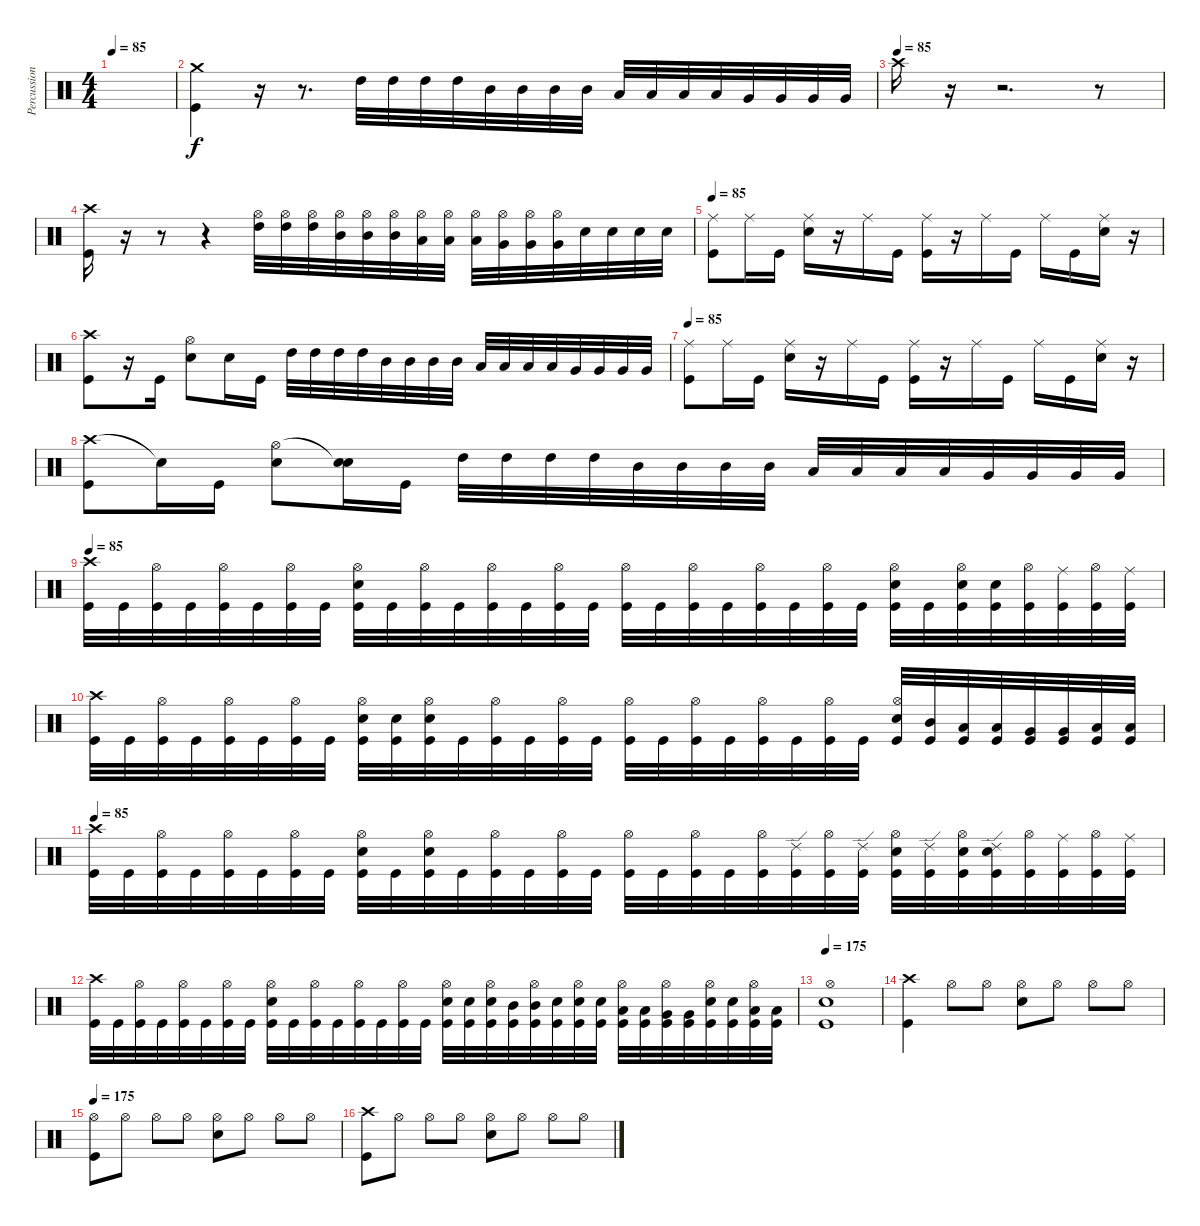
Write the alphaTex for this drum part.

\track ("Percussion" "Percussion") {instrument percussion}
\staff {score}
\articulation defaults
\ts (4 4)
\tempo 85
\clef neutral
\ks c
|
("Crash medium (hit)" "Kick (hit)").4 r.16 r.8{d} "High Tom (hit)".32 "High Tom (hit)".32 "High Tom (hit)".32 "High Tom (hit)".32 "Mid Tom (hit)".32 "Mid Tom (hit)".32 "Mid Tom (hit)".32 "Mid Tom (hit)".32 "Low Tom (hit)".32 "Low Tom (hit)".32 "Low Tom (hit)".32 "Low Tom (hit)".32 "Very Low Tom (hit)".32 "Very Low Tom (hit)".32 "Very Low Tom (hit)".32 "Very Low Tom (hit)".32 |
\tempo (85)
"Crash high (hit)".16 r.16 r.2{d} r.8 |
("Crash high (hit)" "Kick (hit)").16 r.16 r.8 r.4 ("Hi-Hat (open)" "High Tom (hit)").32 ("Hi-Hat (open)" "High Tom (hit)").32 ("Hi-Hat (open)" "High Tom (hit)").32 ("Hi-Hat (open)" "Mid Tom (hit)").32 ("Hi-Hat (open)" "Mid Tom (hit)").32 ("Hi-Hat (open)" "Mid Tom (hit)").32 ("Hi-Hat (open)" "Low Tom (hit)").32 ("Hi-Hat (open)" "Low Tom (hit)").32 ("Hi-Hat (open)" "Low Tom (hit)").32 ("Hi-Hat (open)" "Very Low Tom (hit)").32 ("Hi-Hat (open)" "Very Low Tom (hit)").32 ("Hi-Hat (open)" "Very Low Tom (hit)").32 "Electric Snare (hit)".32 "Electric Snare (hit)".32 "Electric Snare (hit)".32 "Electric Snare (hit)".32 |
\tempo 85
("Ride (middle)" "Kick (hit)").8 "Ride (middle)".16 "Kick (hit)".16 ("Ride (middle)" "Snare (hit) 2").16 r.16 "Ride (middle)".16 "Kick (hit)".16 ("Ride (middle)" "Kick (hit)").16 r.16 "Ride (middle)".16 "Kick (hit)".16 "Ride (middle)".16 "Kick (hit)".16 ("Ride (middle)" "Snare (hit) 2").16 r.16 |
("Crash high (hit)" "Kick (hit)").8 r.16 "Kick (hit)".16 ("Hi-Hat (open)" "Electric Snare (hit)").8 "Electric Snare (hit)".16 "Kick (hit)".16 "High Tom (hit)".32 "High Tom (hit)".32 "High Tom (hit)".32 "High Tom (hit)".32 "Mid Tom (hit)".32 "Mid Tom (hit)".32 "Mid Tom (hit)".32 "Mid Tom (hit)".32 "Low Tom (hit)".32 "Low Tom (hit)".32 "Low Tom (hit)".32 "Low Tom (hit)".32 "Very Low Tom (hit)".32 "Very Low Tom (hit)".32 "Very Low Tom (hit)".32 "Very Low Tom (hit)".32 |
\tempo 85
("Ride (middle)" "Kick (hit)").8 "Ride (middle)".16 "Kick (hit)".16 ("Ride (middle)" "Snare (hit) 2").16 r.16 "Ride (middle)".16 "Kick (hit)".16 ("Ride (middle)" "Kick (hit)").16 r.16 "Ride (middle)".16 "Kick (hit)".16 "Ride (middle)".16 "Kick (hit)".16 ("Ride (middle)" "Snare (hit) 2").16 r.16 |
("Crash high (hit)" "Kick (hit)").8 "Snare (hit)"{t}.16 "Kick (hit)".16 ("Hi-Hat (open)" "Electric Snare (hit)").8 ("Snare (hit)"{t} "Electric Snare (hit)").16 "Kick (hit)".16 "High Tom (hit)".32 "High Tom (hit)".32 "High Tom (hit)".32 "High Tom (hit)".32 "Mid Tom (hit)".32 "Mid Tom (hit)".32 "Mid Tom (hit)".32 "Mid Tom (hit)".32 "Low Tom (hit)".32 "Low Tom (hit)".32 "Low Tom (hit)".32 "Low Tom (hit)".32 "Very Low Tom (hit)".32 "Very Low Tom (hit)".32 "Very Low Tom (hit)".32 "Very Low Tom (hit)".32 |
\tempo 85
("Crash high (hit)" "Kick (hit)").32 "Kick (hit)".32 ("Hi-Hat (open)" "Kick (hit)").32 "Kick (hit)".32 ("Hi-Hat (open)" "Kick (hit)").32 "Kick (hit)".32 ("Hi-Hat (open)" "Kick (hit)").32 "Kick (hit)".32 ("Hi-Hat (open)" "Electric Snare (hit)" "Kick (hit)").32 "Kick (hit)".32 ("Hi-Hat (open)" "Kick (hit)").32 "Kick (hit)".32 ("Hi-Hat (open)" "Kick (hit)").32 "Kick (hit)".32 ("Hi-Hat (open)" "Kick (hit)").32 "Kick (hit)".32 ("Hi-Hat (open)" "Kick (hit)").32 "Kick (hit)".32 ("Hi-Hat (open)" "Kick (hit)").32 "Kick (hit)".32 ("Hi-Hat (open)" "Kick (hit)").32 "Kick (hit)".32 ("Hi-Hat (open)" "Kick (hit)").32 "Kick (hit)".32 ("Hi-Hat (open)" "Electric Snare (hit)" "Kick (hit)").32 "Kick (hit)".32 ("Hi-Hat (open)" "Electric Snare (hit)" "Kick (hit)").32 ("Electric Snare (hit)" "Kick (hit)").32 ("Hi-Hat (open)" "Kick (hit)").32 ("Ride (middle)" "Kick (hit)").32 ("Hi-Hat (open)" "Kick (hit)").32 ("Ride (middle)" "Kick (hit)").32 |
("Crash high (hit)" "Kick (hit)").32 "Kick (hit)".32 ("Hi-Hat (open)" "Kick (hit)").32 "Kick (hit)".32 ("Hi-Hat (open)" "Kick (hit)").32 "Kick (hit)".32 ("Hi-Hat (open)" "Kick (hit)").32 "Kick (hit)".32 ("Hi-Hat (open)" "Electric Snare (hit)" "Kick (hit)").32 ("Electric Snare (hit)" "Kick (hit)").32 ("Hi-Hat (open)" "Electric Snare (hit)" "Kick (hit)").32 "Kick (hit)".32 ("Hi-Hat (open)" "Kick (hit)").32 "Kick (hit)".32 ("Hi-Hat (open)" "Kick (hit)").32 "Kick (hit)".32 ("Hi-Hat (open)" "Kick (hit)").32 "Kick (hit)".32 ("Hi-Hat (open)" "Kick (hit)").32 "Kick (hit)".32 ("Hi-Hat (open)" "Kick (hit)").32 "Kick (hit)".32 ("Hi-Hat (open)" "Kick (hit)").32 "Kick (hit)".32 ("Hi-Hat (open)" "Electric Snare (hit)" "Kick (hit)").32 ("Mid Tom (hit)" "Kick (hit)").32 ("Low Tom (hit)" "Kick (hit)").32 ("Low Tom (hit)" "Kick (hit)").32 ("Very Low Tom (hit)" "Kick (hit)").32 ("Very Low Tom (hit)" "Kick (hit)").32 ("Low Floor Tom (hit)" "Kick (hit)").32 ("Low Floor Tom (hit)" "Kick (hit)").32 |
\tempo 85
("Crash high (hit)" "Kick (hit)").32 "Kick (hit)".32 ("Hi-Hat (open)" "Kick (hit)").32 "Kick (hit)".32 ("Hi-Hat (open)" "Kick (hit)").32 "Kick (hit)".32 ("Hi-Hat (open)" "Kick (hit)").32 "Kick (hit)".32 ("Hi-Hat (open)" "Electric Snare (hit)" "Kick (hit)").32 "Kick (hit)".32 ("Hi-Hat (open)" "Electric Snare (hit)" "Kick (hit)").32 "Kick (hit)".32 ("Hi-Hat (open)" "Kick (hit)").32 "Kick (hit)".32 ("Hi-Hat (open)" "Kick (hit)").32 "Kick (hit)".32 ("Hi-Hat (open)" "Kick (hit)").32 "Kick (hit)".32 ("Hi-Hat (open)" "Kick (hit)").32 "Kick (hit)".32 ("Hi-Hat (open)" "Kick (hit)").32 ("Ride (edge) 2" "Kick (hit)").32 ("Hi-Hat (open)" "Kick (hit)").32 ("Ride (edge) 2" "Kick (hit)").32 ("Hi-Hat (open)" "Electric Snare (hit)" "Kick (hit)").32 ("Ride (edge) 2" "Kick (hit)").32 ("Hi-Hat (open)" "Electric Snare (hit)" "Kick (hit)").32 ("Ride (edge) 2" "Electric Snare (hit)" "Kick (hit)").32 ("Hi-Hat (open)" "Kick (hit)").32 ("Ride (middle)" "Kick (hit)").32 ("Hi-Hat (open)" "Kick (hit)").32 ("Ride (middle)" "Kick (hit)").32 |
("Crash high (hit)" "Kick (hit)").32 "Kick (hit)".32 ("Hi-Hat (open)" "Kick (hit)").32 "Kick (hit)".32 ("Hi-Hat (open)" "Kick (hit)").32 "Kick (hit)".32 ("Hi-Hat (open)" "Kick (hit)").32 "Kick (hit)".32 ("Hi-Hat (open)" "Electric Snare (hit)" "Kick (hit)").32 "Kick (hit)".32 ("Hi-Hat (open)" "Kick (hit)").32 "Kick (hit)".32 ("Hi-Hat (open)" "Kick (hit)").32 "Kick (hit)".32 ("Hi-Hat (open)" "Kick (hit)").32 "Kick (hit)".32 ("Hi-Hat (open)" "Electric Snare (hit)" "Kick (hit)").32 ("Electric Snare (hit)" "Kick (hit)").32 ("Hi-Hat (open)" "Electric Snare (hit)" "Kick (hit)").32 ("Mid Tom (hit)" "Kick (hit)").32 ("Hi-Hat (open)" "Mid Tom (hit)" "Kick (hit)").32 ("Electric Snare (hit)" "Kick (hit)").32 ("Hi-Hat (open)" "Electric Snare (hit)" "Kick (hit)").32 ("Electric Snare (hit)" "Kick (hit)").32 ("Hi-Hat (open)" "Low Tom (hit)" "Kick (hit)").32 ("Low Tom (hit)" "Kick (hit)").32 ("Hi-Hat (open)" "Very Low Tom (hit)" "Kick (hit)").32 ("Very Low Tom (hit)" "Kick (hit)").32 ("Hi-Hat (open)" "Electric Snare (hit)" "Kick (hit)").32 ("Electric Snare (hit)" "Kick (hit)").32 ("Hi-Hat (open)" "Low Floor Tom (hit)" "Kick (hit)").32 ("Low Floor Tom (hit)" "Kick (hit)").32 |
\tempo 175
("Hi-Hat (open)" "Electric Snare (hit)" "Kick (hit)").1 |
("Crash high (hit)" "Kick (hit)").4 "Hi-Hat (open)".8 "Hi-Hat (open)".8 ("Hi-Hat (open)" "Electric Snare (hit)").8 "Hi-Hat (open)".8 "Hi-Hat (open)".8 "Hi-Hat (open)".8 |
\tempo 175
("Hi-Hat (open)" "Kick (hit)").8 "Hi-Hat (open)".8 "Hi-Hat (open)".8 "Hi-Hat (open)".8 ("Hi-Hat (open)" "Electric Snare (hit)").8 "Hi-Hat (open)".8 "Hi-Hat (open)".8 "Hi-Hat (open)".8 |
("Crash high (hit)" "Kick (hit)").8 "Hi-Hat (open)".8 "Hi-Hat (open)".8 "Hi-Hat (open)".8 ("Hi-Hat (open)" "Electric Snare (hit)").8 "Hi-Hat (open)".8 "Hi-Hat (open)".8 "Hi-Hat (open)".8
